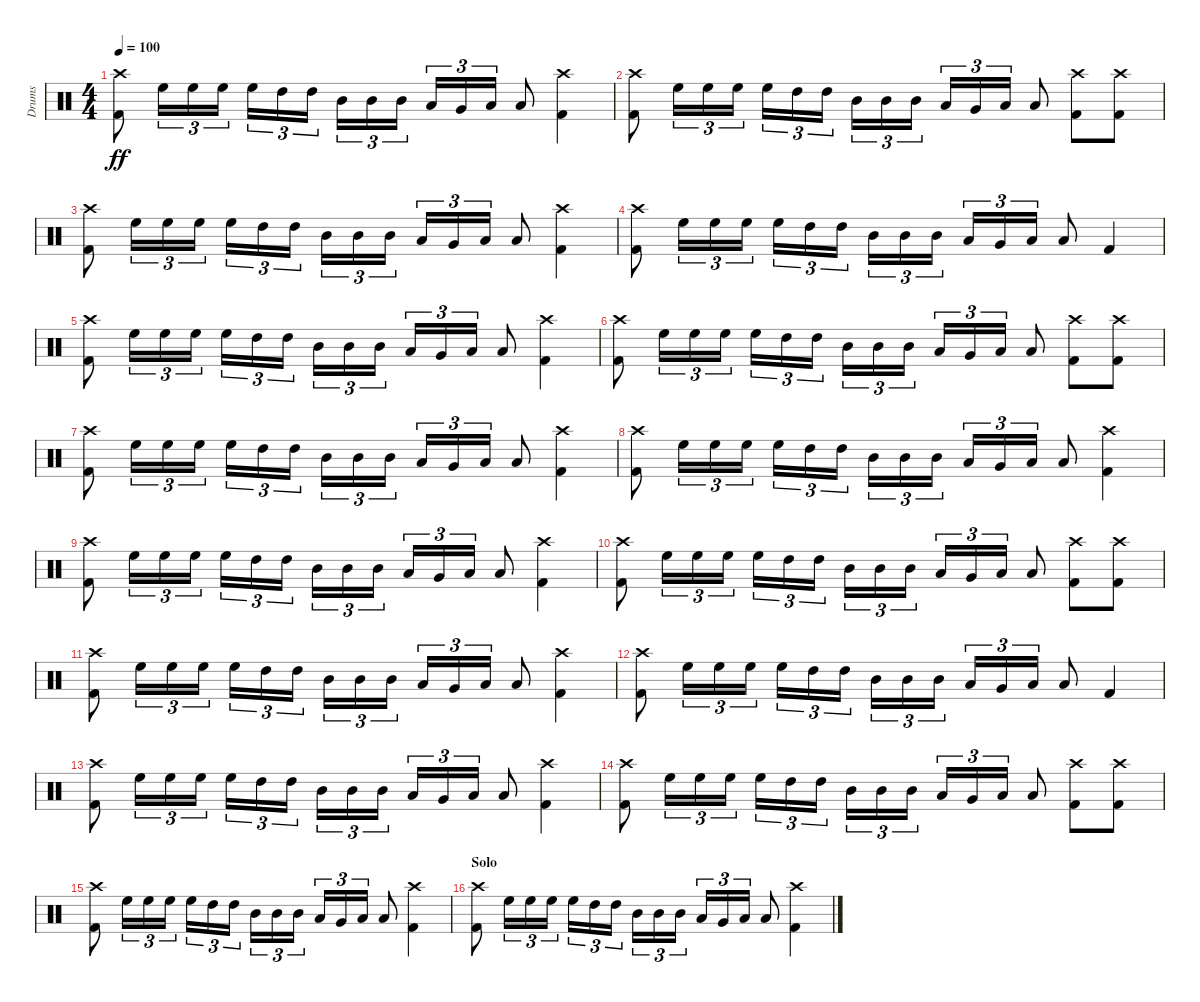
\track ("Drums     " "Drums     ") {instrument percussion}
\staff {score}
\articulation defaults
\ts (4 4)
\tempo 100
\clef neutral
\ks c
("Kick (hit) 2" "Crash high (hit)").8{dy ff} "High Floor Tom (hit)".16{tu (3 2)} "High Floor Tom (hit)".16{tu (3 2)} "High Floor Tom (hit)".16{tu (3 2)} "High Floor Tom (hit)".16{tu (3 2)} "High Tom (hit)".16{tu (3 2)} "High Tom (hit)".16{tu (3 2)} "Mid Tom (hit)".16{tu (3 2)} "Mid Tom (hit)".16{tu (3 2)} "Mid Tom (hit)".16{tu (3 2)} "Low Tom (hit)".16{tu (3 2)} "Very Low Tom (hit)".16{tu (3 2)} "Low Floor Tom (hit)".16{tu (3 2)} "Low Floor Tom (hit)".8 ("Kick (hit) 2" "Crash high (hit)").4 |
("Kick (hit) 2" "Crash high (hit)").8 "High Floor Tom (hit)".16{tu (3 2)} "High Floor Tom (hit)".16{tu (3 2)} "High Floor Tom (hit)".16{tu (3 2)} "High Floor Tom (hit)".16{tu (3 2)} "High Tom (hit)".16{tu (3 2)} "High Tom (hit)".16{tu (3 2)} "Mid Tom (hit)".16{tu (3 2)} "Mid Tom (hit)".16{tu (3 2)} "Mid Tom (hit)".16{tu (3 2)} "Low Tom (hit)".16{tu (3 2)} "Very Low Tom (hit)".16{tu (3 2)} "Low Floor Tom (hit)".16{tu (3 2)} "Low Floor Tom (hit)".8 ("Kick (hit) 2" "Crash high (hit)").8 ("Kick (hit) 2" "Crash high (hit)").8 |
("Kick (hit) 2" "Crash high (hit)").8 "High Floor Tom (hit)".16{tu (3 2)} "High Floor Tom (hit)".16{tu (3 2)} "High Floor Tom (hit)".16{tu (3 2)} "High Floor Tom (hit)".16{tu (3 2)} "High Tom (hit)".16{tu (3 2)} "High Tom (hit)".16{tu (3 2)} "Mid Tom (hit)".16{tu (3 2)} "Mid Tom (hit)".16{tu (3 2)} "Mid Tom (hit)".16{tu (3 2)} "Low Tom (hit)".16{tu (3 2)} "Very Low Tom (hit)".16{tu (3 2)} "Low Floor Tom (hit)".16{tu (3 2)} "Low Floor Tom (hit)".8 ("Kick (hit) 2" "Crash high (hit)").4 |
("Kick (hit) 2" "Crash high (hit)").8 "High Floor Tom (hit)".16{tu (3 2)} "High Floor Tom (hit)".16{tu (3 2)} "High Floor Tom (hit)".16{tu (3 2)} "High Floor Tom (hit)".16{tu (3 2)} "High Tom (hit)".16{tu (3 2)} "High Tom (hit)".16{tu (3 2)} "Mid Tom (hit)".16{tu (3 2)} "Mid Tom (hit)".16{tu (3 2)} "Mid Tom (hit)".16{tu (3 2)} "Low Tom (hit)".16{tu (3 2)} "Very Low Tom (hit)".16{tu (3 2)} "Low Floor Tom (hit)".16{tu (3 2)} "Low Floor Tom (hit)".8 "Kick (hit) 2".4 |
("Kick (hit) 2" "Crash high (hit)").8 "High Floor Tom (hit)".16{tu (3 2)} "High Floor Tom (hit)".16{tu (3 2)} "High Floor Tom (hit)".16{tu (3 2)} "High Floor Tom (hit)".16{tu (3 2)} "High Tom (hit)".16{tu (3 2)} "High Tom (hit)".16{tu (3 2)} "Mid Tom (hit)".16{tu (3 2)} "Mid Tom (hit)".16{tu (3 2)} "Mid Tom (hit)".16{tu (3 2)} "Low Tom (hit)".16{tu (3 2)} "Very Low Tom (hit)".16{tu (3 2)} "Low Floor Tom (hit)".16{tu (3 2)} "Low Floor Tom (hit)".8 ("Kick (hit) 2" "Crash high (hit)").4 |
("Kick (hit) 2" "Crash high (hit)").8 "High Floor Tom (hit)".16{tu (3 2)} "High Floor Tom (hit)".16{tu (3 2)} "High Floor Tom (hit)".16{tu (3 2)} "High Floor Tom (hit)".16{tu (3 2)} "High Tom (hit)".16{tu (3 2)} "High Tom (hit)".16{tu (3 2)} "Mid Tom (hit)".16{tu (3 2)} "Mid Tom (hit)".16{tu (3 2)} "Mid Tom (hit)".16{tu (3 2)} "Low Tom (hit)".16{tu (3 2)} "Very Low Tom (hit)".16{tu (3 2)} "Low Floor Tom (hit)".16{tu (3 2)} "Low Floor Tom (hit)".8 ("Kick (hit) 2" "Crash high (hit)").8 ("Kick (hit) 2" "Crash high (hit)").8 |
("Kick (hit) 2" "Crash high (hit)").8 "High Floor Tom (hit)".16{tu (3 2)} "High Floor Tom (hit)".16{tu (3 2)} "High Floor Tom (hit)".16{tu (3 2)} "High Floor Tom (hit)".16{tu (3 2)} "High Tom (hit)".16{tu (3 2)} "High Tom (hit)".16{tu (3 2)} "Mid Tom (hit)".16{tu (3 2)} "Mid Tom (hit)".16{tu (3 2)} "Mid Tom (hit)".16{tu (3 2)} "Low Tom (hit)".16{tu (3 2)} "Very Low Tom (hit)".16{tu (3 2)} "Low Floor Tom (hit)".16{tu (3 2)} "Low Floor Tom (hit)".8 ("Kick (hit) 2" "Crash high (hit)").4 |
("Kick (hit) 2" "Crash high (hit)").8 "High Floor Tom (hit)".16{tu (3 2)} "High Floor Tom (hit)".16{tu (3 2)} "High Floor Tom (hit)".16{tu (3 2)} "High Floor Tom (hit)".16{tu (3 2)} "High Tom (hit)".16{tu (3 2)} "High Tom (hit)".16{tu (3 2)} "Mid Tom (hit)".16{tu (3 2)} "Mid Tom (hit)".16{tu (3 2)} "Mid Tom (hit)".16{tu (3 2)} "Low Tom (hit)".16{tu (3 2)} "Very Low Tom (hit)".16{tu (3 2)} "Low Floor Tom (hit)".16{tu (3 2)} "Low Floor Tom (hit)".8 ("Kick (hit) 2" "Crash high (hit)").4 |
("Kick (hit) 2" "Crash high (hit)").8 "High Floor Tom (hit)".16{tu (3 2)} "High Floor Tom (hit)".16{tu (3 2)} "High Floor Tom (hit)".16{tu (3 2)} "High Floor Tom (hit)".16{tu (3 2)} "High Tom (hit)".16{tu (3 2)} "High Tom (hit)".16{tu (3 2)} "Mid Tom (hit)".16{tu (3 2)} "Mid Tom (hit)".16{tu (3 2)} "Mid Tom (hit)".16{tu (3 2)} "Low Tom (hit)".16{tu (3 2)} "Very Low Tom (hit)".16{tu (3 2)} "Low Floor Tom (hit)".16{tu (3 2)} "Low Floor Tom (hit)".8 ("Kick (hit) 2" "Crash high (hit)").4 |
("Kick (hit) 2" "Crash high (hit)").8 "High Floor Tom (hit)".16{tu (3 2)} "High Floor Tom (hit)".16{tu (3 2)} "High Floor Tom (hit)".16{tu (3 2)} "High Floor Tom (hit)".16{tu (3 2)} "High Tom (hit)".16{tu (3 2)} "High Tom (hit)".16{tu (3 2)} "Mid Tom (hit)".16{tu (3 2)} "Mid Tom (hit)".16{tu (3 2)} "Mid Tom (hit)".16{tu (3 2)} "Low Tom (hit)".16{tu (3 2)} "Very Low Tom (hit)".16{tu (3 2)} "Low Floor Tom (hit)".16{tu (3 2)} "Low Floor Tom (hit)".8 ("Kick (hit) 2" "Crash high (hit)").8 ("Kick (hit) 2" "Crash high (hit)").8 |
("Kick (hit) 2" "Crash high (hit)").8 "High Floor Tom (hit)".16{tu (3 2)} "High Floor Tom (hit)".16{tu (3 2)} "High Floor Tom (hit)".16{tu (3 2)} "High Floor Tom (hit)".16{tu (3 2)} "High Tom (hit)".16{tu (3 2)} "High Tom (hit)".16{tu (3 2)} "Mid Tom (hit)".16{tu (3 2)} "Mid Tom (hit)".16{tu (3 2)} "Mid Tom (hit)".16{tu (3 2)} "Low Tom (hit)".16{tu (3 2)} "Very Low Tom (hit)".16{tu (3 2)} "Low Floor Tom (hit)".16{tu (3 2)} "Low Floor Tom (hit)".8 ("Kick (hit) 2" "Crash high (hit)").4 |
("Kick (hit) 2" "Crash high (hit)").8 "High Floor Tom (hit)".16{tu (3 2)} "High Floor Tom (hit)".16{tu (3 2)} "High Floor Tom (hit)".16{tu (3 2)} "High Floor Tom (hit)".16{tu (3 2)} "High Tom (hit)".16{tu (3 2)} "High Tom (hit)".16{tu (3 2)} "Mid Tom (hit)".16{tu (3 2)} "Mid Tom (hit)".16{tu (3 2)} "Mid Tom (hit)".16{tu (3 2)} "Low Tom (hit)".16{tu (3 2)} "Very Low Tom (hit)".16{tu (3 2)} "Low Floor Tom (hit)".16{tu (3 2)} "Low Floor Tom (hit)".8 "Kick (hit) 2".4 |
("Kick (hit) 2" "Crash high (hit)").8 "High Floor Tom (hit)".16{tu (3 2)} "High Floor Tom (hit)".16{tu (3 2)} "High Floor Tom (hit)".16{tu (3 2)} "High Floor Tom (hit)".16{tu (3 2)} "High Tom (hit)".16{tu (3 2)} "High Tom (hit)".16{tu (3 2)} "Mid Tom (hit)".16{tu (3 2)} "Mid Tom (hit)".16{tu (3 2)} "Mid Tom (hit)".16{tu (3 2)} "Low Tom (hit)".16{tu (3 2)} "Very Low Tom (hit)".16{tu (3 2)} "Low Floor Tom (hit)".16{tu (3 2)} "Low Floor Tom (hit)".8 ("Kick (hit) 2" "Crash high (hit)").4 |
("Kick (hit) 2" "Crash high (hit)").8 "High Floor Tom (hit)".16{tu (3 2)} "High Floor Tom (hit)".16{tu (3 2)} "High Floor Tom (hit)".16{tu (3 2)} "High Floor Tom (hit)".16{tu (3 2)} "High Tom (hit)".16{tu (3 2)} "High Tom (hit)".16{tu (3 2)} "Mid Tom (hit)".16{tu (3 2)} "Mid Tom (hit)".16{tu (3 2)} "Mid Tom (hit)".16{tu (3 2)} "Low Tom (hit)".16{tu (3 2)} "Very Low Tom (hit)".16{tu (3 2)} "Low Floor Tom (hit)".16{tu (3 2)} "Low Floor Tom (hit)".8 ("Kick (hit) 2" "Crash high (hit)").8 ("Kick (hit) 2" "Crash high (hit)").8 |
("Kick (hit) 2" "Crash high (hit)").8 "High Floor Tom (hit)".16{tu (3 2)} "High Floor Tom (hit)".16{tu (3 2)} "High Floor Tom (hit)".16{tu (3 2)} "High Floor Tom (hit)".16{tu (3 2)} "High Tom (hit)".16{tu (3 2)} "High Tom (hit)".16{tu (3 2)} "Mid Tom (hit)".16{tu (3 2)} "Mid Tom (hit)".16{tu (3 2)} "Mid Tom (hit)".16{tu (3 2)} "Low Tom (hit)".16{tu (3 2)} "Very Low Tom (hit)".16{tu (3 2)} "Low Floor Tom (hit)".16{tu (3 2)} "Low Floor Tom (hit)".8 ("Kick (hit) 2" "Crash high (hit)").4 |
\section ("" "Solo")
("Kick (hit) 2" "Crash high (hit)").8 "High Floor Tom (hit)".16{tu (3 2)} "High Floor Tom (hit)".16{tu (3 2)} "High Floor Tom (hit)".16{tu (3 2)} "High Floor Tom (hit)".16{tu (3 2)} "High Tom (hit)".16{tu (3 2)} "High Tom (hit)".16{tu (3 2)} "Mid Tom (hit)".16{tu (3 2)} "Mid Tom (hit)".16{tu (3 2)} "Mid Tom (hit)".16{tu (3 2)} "Low Tom (hit)".16{tu (3 2)} "Very Low Tom (hit)".16{tu (3 2)} "Low Floor Tom (hit)".16{tu (3 2)} "Low Floor Tom (hit)".8 ("Kick (hit) 2" "Crash high (hit)").4
